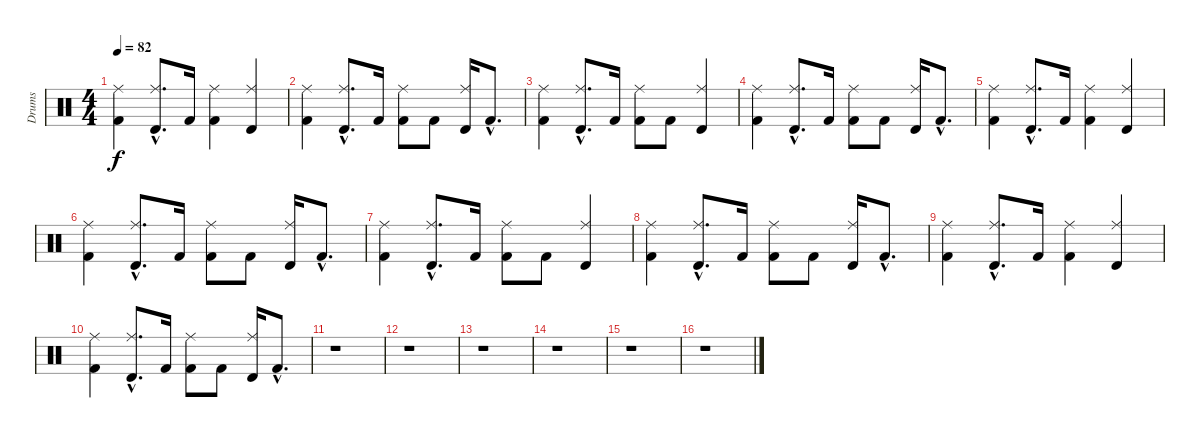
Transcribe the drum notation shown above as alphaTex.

\track ("Drums" "Drums") {instrument percussion}
\staff {score}
\articulation defaults
\ts (4 4)
\tempo 82
\clef neutral
\ks c
("Ride (middle)" "Kick (hit) 2").4{dy f} ("Ride (middle)"{hac} "Timbale high (hit)"{hac}).8{d} "Kick (hit) 2".16 ("Ride (middle)" "Kick (hit) 2").4 ("Ride (middle)" "Timbale high (hit)").4 |
("Ride (middle)" "Kick (hit) 2").4 ("Ride (middle)"{hac} "Timbale high (hit)"{hac}).8{d} "Kick (hit) 2".16 ("Ride (middle)" "Kick (hit) 2").8 "Kick (hit) 2".8 ("Ride (middle)" "Timbale high (hit)").16 "Kick (hit) 2"{hac}.8{d} |
("Ride (middle)" "Kick (hit) 2").4 ("Ride (middle)"{hac} "Timbale high (hit)"{hac}).8{d} "Kick (hit) 2".16 ("Ride (middle)" "Kick (hit) 2").8 "Kick (hit) 2".8 ("Ride (middle)" "Timbale high (hit)").4 |
("Ride (middle)" "Kick (hit) 2").4 ("Ride (middle)"{hac} "Timbale high (hit)"{hac}).8{d} "Kick (hit) 2".16 ("Ride (middle)" "Kick (hit) 2").8 "Kick (hit) 2".8 ("Ride (middle)" "Timbale high (hit)").16 "Kick (hit) 2"{hac}.8{d} |
("Ride (middle)" "Kick (hit) 2").4 ("Ride (middle)"{hac} "Timbale high (hit)"{hac}).8{d} "Kick (hit) 2".16 ("Ride (middle)" "Kick (hit) 2").4 ("Ride (middle)" "Timbale high (hit)").4 |
("Ride (middle)" "Kick (hit) 2").4 ("Ride (middle)"{hac} "Timbale high (hit)"{hac}).8{d} "Kick (hit) 2".16 ("Ride (middle)" "Kick (hit) 2").8 "Kick (hit) 2".8 ("Ride (middle)" "Timbale high (hit)").16 "Kick (hit) 2"{hac}.8{d} |
("Ride (middle)" "Kick (hit) 2").4 ("Ride (middle)"{hac} "Timbale high (hit)"{hac}).8{d} "Kick (hit) 2".16 ("Ride (middle)" "Kick (hit) 2").8 "Kick (hit) 2".8 ("Ride (middle)" "Timbale high (hit)").4 |
("Ride (middle)" "Kick (hit) 2").4 ("Ride (middle)"{hac} "Timbale high (hit)"{hac}).8{d} "Kick (hit) 2".16 ("Ride (middle)" "Kick (hit) 2").8 "Kick (hit) 2".8 ("Ride (middle)" "Timbale high (hit)").16 "Kick (hit) 2"{hac}.8{d} |
("Ride (middle)" "Kick (hit) 2").4 ("Ride (middle)"{hac} "Timbale high (hit)"{hac}).8{d} "Kick (hit) 2".16 ("Ride (middle)" "Kick (hit) 2").4 ("Ride (middle)" "Timbale high (hit)").4 |
("Ride (middle)" "Kick (hit) 2").4 ("Ride (middle)"{hac} "Timbale high (hit)"{hac}).8{d} "Kick (hit) 2".16 ("Ride (middle)" "Kick (hit) 2").8 "Kick (hit) 2".8 ("Ride (middle)" "Timbale high (hit)").16 "Kick (hit) 2"{hac}.8{d} |
r.1 |
r.1 |
r.1 |
r.1 |
r.1 |
r.1
